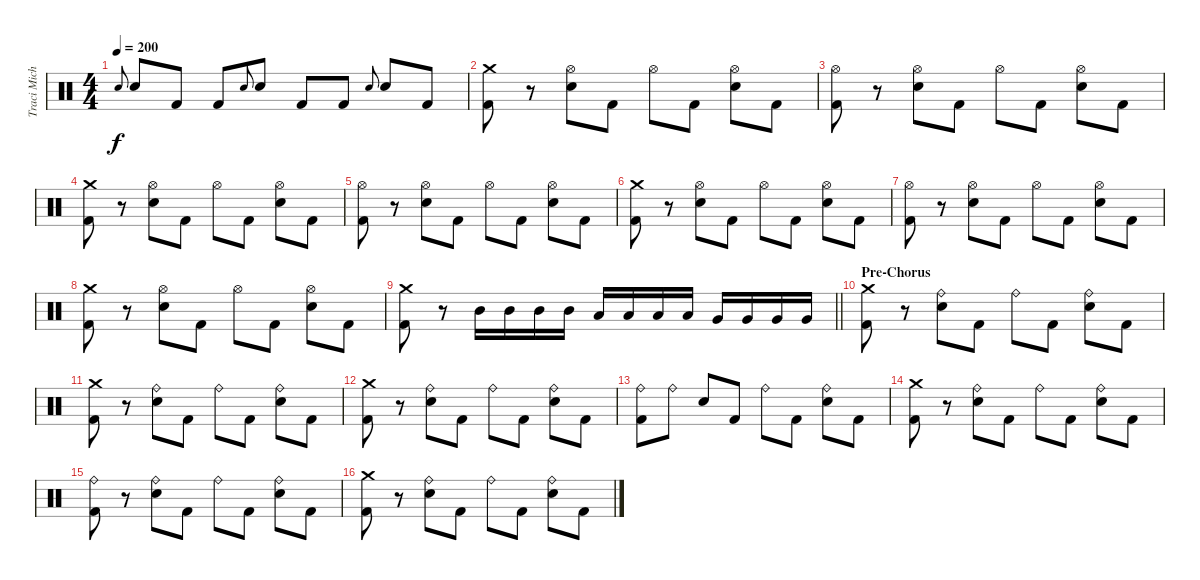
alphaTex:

\track ("Traci Michaelz" "Traci Mich") {instrument percussion}
\staff {score}
\articulation defaults
\ts (4 4)
\tempo 200
\clef neutral
\ks c "Snare (hit) 2".8{gr onbeat dy f} "Snare (hit) 2".8 "Kick (hit) 2".8 "Kick (hit) 2".8 "Snare (hit) 2".8{gr onbeat} "Snare (hit) 2".8 "Kick (hit) 2".8 "Kick (hit) 2".8 "Snare (hit) 2".8{gr onbeat} "Snare (hit) 2".8 "Kick (hit) 2".8
|
("Crash medium (hit)" "Kick (hit) 2").8 r.8 ("Hi-Hat (open)" "Snare (hit) 2").8 "Kick (hit) 2".8 "Hi-Hat (open)".8 "Kick (hit) 2".8 ("Hi-Hat (open)" "Snare (hit) 2").8 "Kick (hit) 2".8 |
("Hi-Hat (open)" "Kick (hit) 2").8 r.8 ("Hi-Hat (open)" "Snare (hit) 2").8 "Kick (hit) 2".8 "Hi-Hat (open)".8 "Kick (hit) 2".8 ("Hi-Hat (open)" "Snare (hit) 2").8 "Kick (hit) 2".8 |
("Crash medium (hit)" "Kick (hit) 2").8 r.8 ("Hi-Hat (open)" "Snare (hit) 2").8 "Kick (hit) 2".8 "Hi-Hat (open)".8 "Kick (hit) 2".8 ("Hi-Hat (open)" "Snare (hit) 2").8 "Kick (hit) 2".8 |
("Hi-Hat (open)" "Kick (hit) 2").8 r.8 ("Hi-Hat (open)" "Snare (hit) 2").8 "Kick (hit) 2".8 "Hi-Hat (open)".8 "Kick (hit) 2".8 ("Hi-Hat (open)" "Snare (hit) 2").8 "Kick (hit) 2".8 |
("Crash medium (hit)" "Kick (hit) 2").8 r.8 ("Hi-Hat (open)" "Snare (hit) 2").8 "Kick (hit) 2".8 "Hi-Hat (open)".8 "Kick (hit) 2".8 ("Hi-Hat (open)" "Snare (hit) 2").8 "Kick (hit) 2".8 |
("Hi-Hat (open)" "Kick (hit) 2").8 r.8 ("Hi-Hat (open)" "Snare (hit) 2").8 "Kick (hit) 2".8 "Hi-Hat (open)".8 "Kick (hit) 2".8 ("Hi-Hat (open)" "Snare (hit) 2").8 "Kick (hit) 2".8 |
("Crash medium (hit)" "Kick (hit) 2").8 r.8 ("Hi-Hat (open)" "Snare (hit) 2").8 "Kick (hit) 2".8 "Hi-Hat (open)".8 "Kick (hit) 2".8 ("Hi-Hat (open)" "Snare (hit) 2").8 "Kick (hit) 2".8 |
\barLineRight lightlight
("Crash medium (hit)" "Kick (hit) 2").8 r.8 "Mid Tom (hit)".16 "Mid Tom (hit)".16 "Mid Tom (hit)".16 "Mid Tom (hit)".16 "Low Tom (hit)".16 "Low Tom (hit)".16 "Low Tom (hit)".16 "Low Tom (hit)".16 "Very Low Tom (hit)".16 "Very Low Tom (hit)".16 "Very Low Tom (hit)".16 "Very Low Tom (hit)".16 |
\section ("" "Pre-Chorus")
("Crash medium (hit)" "Kick (hit) 2").8 r.8 ("Ride (bell)" "Snare (hit) 2").8 "Kick (hit) 2".8 "Ride (bell)".8 "Kick (hit) 2".8 ("Ride (bell)" "Snare (hit) 2").8 "Kick (hit) 2".8 |
("Crash medium (hit)" "Kick (hit) 2").8 r.8 ("Ride (bell)" "Snare (hit) 2").8 "Kick (hit) 2".8 "Ride (bell)".8 "Kick (hit) 2".8 ("Ride (bell)" "Snare (hit) 2").8 "Kick (hit) 2".8 |
("Crash medium (hit)" "Kick (hit) 2").8 r.8 ("Ride (bell)" "Snare (hit) 2").8 "Kick (hit) 2".8 "Ride (bell)".8 "Kick (hit) 2".8 ("Ride (bell)" "Snare (hit) 2").8 "Kick (hit) 2".8 |
("Ride (bell)" "Kick (hit) 2").8 "Ride (bell)".8 "Snare (hit) 2".8 "Kick (hit) 2".8 "Ride (bell)".8 "Kick (hit) 2".8 ("Ride (bell)" "Snare (hit) 2").8 "Kick (hit) 2".8 |
("Crash medium (hit)" "Kick (hit) 2").8 r.8 ("Ride (bell)" "Snare (hit) 2").8 "Kick (hit) 2".8 "Ride (bell)".8 "Kick (hit) 2".8 ("Ride (bell)" "Snare (hit) 2").8 "Kick (hit) 2".8 |
("Ride (bell)" "Kick (hit) 2").8 r.8 ("Ride (bell)" "Snare (hit) 2").8 "Kick (hit) 2".8 "Ride (bell)".8 "Kick (hit) 2".8 ("Ride (bell)" "Snare (hit) 2").8 "Kick (hit) 2".8 |
("Crash medium (hit)" "Kick (hit) 2").8 r.8 ("Ride (bell)" "Snare (hit) 2").8 "Kick (hit) 2".8 "Ride (bell)".8 "Kick (hit) 2".8 ("Ride (bell)" "Snare (hit) 2").8 "Kick (hit) 2".8
